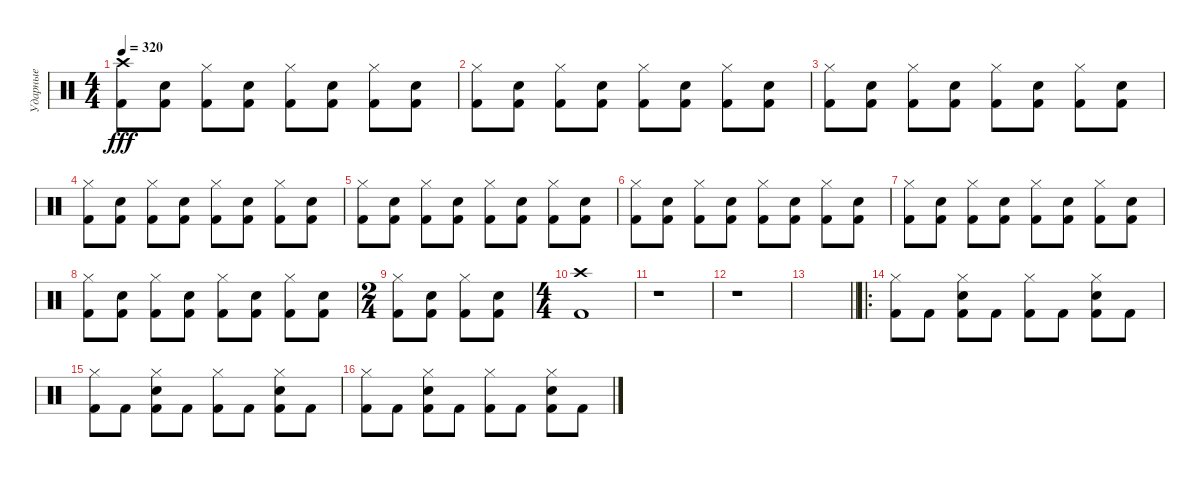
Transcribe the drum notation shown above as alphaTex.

\track ("Ударные" "Ударные") {instrument percussion}
\staff {score}
\articulation defaults
\ts (4 4)
\tempo 320
\clef neutral
\ks c
("Kick (hit) 2" "Crash high (hit)").8{dy fff} ("Kick (hit) 2" "Snare (hit) 2").8 ("Kick (hit) 2" "Hi-Hat (closed)").8 ("Kick (hit) 2" "Snare (hit) 2").8 ("Kick (hit) 2" "Hi-Hat (closed)").8 ("Kick (hit) 2" "Snare (hit) 2").8 ("Kick (hit) 2" "Hi-Hat (closed)").8 ("Kick (hit) 2" "Snare (hit) 2").8 |
("Kick (hit) 2" "Hi-Hat (closed)").8 ("Kick (hit) 2" "Snare (hit) 2").8 ("Kick (hit) 2" "Hi-Hat (closed)").8 ("Kick (hit) 2" "Snare (hit) 2").8 ("Kick (hit) 2" "Hi-Hat (closed)").8 ("Kick (hit) 2" "Snare (hit) 2").8 ("Kick (hit) 2" "Hi-Hat (closed)").8 ("Kick (hit) 2" "Snare (hit) 2").8 |
("Kick (hit) 2" "Hi-Hat (closed)").8 ("Kick (hit) 2" "Snare (hit) 2").8 ("Kick (hit) 2" "Hi-Hat (closed)").8 ("Kick (hit) 2" "Snare (hit) 2").8 ("Kick (hit) 2" "Hi-Hat (closed)").8 ("Kick (hit) 2" "Snare (hit) 2").8 ("Kick (hit) 2" "Hi-Hat (closed)").8 ("Kick (hit) 2" "Snare (hit) 2").8 |
("Kick (hit) 2" "Hi-Hat (closed)").8 ("Kick (hit) 2" "Snare (hit) 2").8 ("Kick (hit) 2" "Hi-Hat (closed)").8 ("Kick (hit) 2" "Snare (hit) 2").8 ("Kick (hit) 2" "Hi-Hat (closed)").8 ("Kick (hit) 2" "Snare (hit) 2").8 ("Kick (hit) 2" "Hi-Hat (closed)").8 ("Kick (hit) 2" "Snare (hit) 2").8 |
("Kick (hit) 2" "Hi-Hat (closed)").8 ("Kick (hit) 2" "Snare (hit) 2").8 ("Kick (hit) 2" "Hi-Hat (closed)").8 ("Kick (hit) 2" "Snare (hit) 2").8 ("Kick (hit) 2" "Hi-Hat (closed)").8 ("Kick (hit) 2" "Snare (hit) 2").8 ("Kick (hit) 2" "Hi-Hat (closed)").8 ("Kick (hit) 2" "Snare (hit) 2").8 |
("Kick (hit) 2" "Hi-Hat (closed)").8 ("Kick (hit) 2" "Snare (hit) 2").8 ("Kick (hit) 2" "Hi-Hat (closed)").8 ("Kick (hit) 2" "Snare (hit) 2").8 ("Kick (hit) 2" "Hi-Hat (closed)").8 ("Kick (hit) 2" "Snare (hit) 2").8 ("Kick (hit) 2" "Hi-Hat (closed)").8 ("Kick (hit) 2" "Snare (hit) 2").8 |
("Kick (hit) 2" "Hi-Hat (closed)").8 ("Kick (hit) 2" "Snare (hit) 2").8 ("Kick (hit) 2" "Hi-Hat (closed)").8 ("Kick (hit) 2" "Snare (hit) 2").8 ("Kick (hit) 2" "Hi-Hat (closed)").8 ("Kick (hit) 2" "Snare (hit) 2").8 ("Kick (hit) 2" "Hi-Hat (closed)").8 ("Kick (hit) 2" "Snare (hit) 2").8 |
("Kick (hit) 2" "Hi-Hat (closed)").8 ("Kick (hit) 2" "Snare (hit) 2").8 ("Kick (hit) 2" "Hi-Hat (closed)").8 ("Kick (hit) 2" "Snare (hit) 2").8 ("Kick (hit) 2" "Hi-Hat (closed)").8 ("Kick (hit) 2" "Snare (hit) 2").8 ("Kick (hit) 2" "Hi-Hat (closed)").8 ("Kick (hit) 2" "Snare (hit) 2").8 |
\ts (2 4)
("Kick (hit) 2" "Hi-Hat (closed)").8 ("Kick (hit) 2" "Snare (hit) 2").8 ("Kick (hit) 2" "Hi-Hat (closed)").8 ("Kick (hit) 2" "Snare (hit) 2").8 |
\ts (4 4)
("Kick (hit) 2" "Crash high (hit)").1 |
r.1 |
r.1 |
\barLineRight lightlight
|
\ro
("Kick (hit) 2" "Hi-Hat (closed)").8 "Kick (hit) 2".8 ("Kick (hit) 2" "Snare (hit) 2" "Hi-Hat (closed)").8 "Kick (hit) 2".8 ("Kick (hit) 2" "Hi-Hat (closed)").8 "Kick (hit) 2".8 ("Kick (hit) 2" "Snare (hit) 2" "Hi-Hat (closed)").8 "Kick (hit) 2".8 |
("Kick (hit) 2" "Hi-Hat (closed)").8 "Kick (hit) 2".8 ("Kick (hit) 2" "Snare (hit) 2" "Hi-Hat (closed)").8 "Kick (hit) 2".8 ("Kick (hit) 2" "Hi-Hat (closed)").8 "Kick (hit) 2".8 ("Kick (hit) 2" "Snare (hit) 2" "Hi-Hat (closed)").8 "Kick (hit) 2".8 |
("Kick (hit) 2" "Hi-Hat (closed)").8 "Kick (hit) 2".8 ("Kick (hit) 2" "Snare (hit) 2" "Hi-Hat (closed)").8 "Kick (hit) 2".8 ("Kick (hit) 2" "Hi-Hat (closed)").8 "Kick (hit) 2".8 ("Kick (hit) 2" "Snare (hit) 2" "Hi-Hat (closed)").8 "Kick (hit) 2".8
